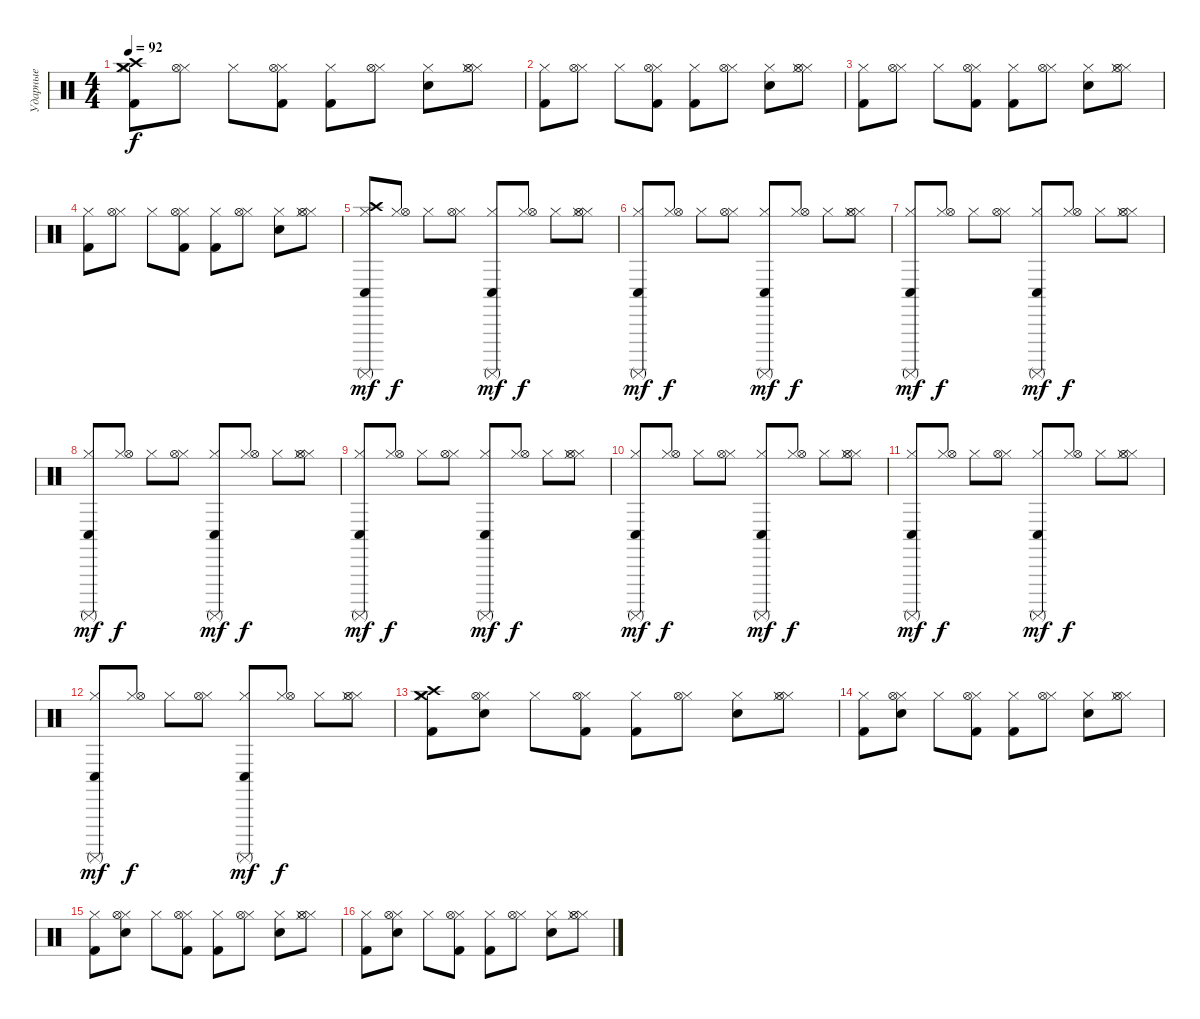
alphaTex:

\track ("Ударные" "Ударные") {instrument percussion}
\staff {score}
\articulation defaults
\ts (4 4)
\tempo 92
\clef neutral
\ks c
("Kick (hit) 2" "Hi-Hat (closed)" "Crash high (hit)" "Crash medium (hit)").8{dy f} ("Hi-Hat (closed)" "Hi-Hat (open)").8 "Hi-Hat (closed)".8 ("Kick (hit) 2" "Hi-Hat (closed)" "Hi-Hat (open)").8 ("Kick (hit) 2" "Hi-Hat (closed)").8 ("Hi-Hat (closed)" "Hi-Hat (open)").8 ("Snare (hit) 2" "Hi-Hat (closed)").8 ("Hi-Hat (closed)" "Hi-Hat (closed)" "Hi-Hat (open)").8 |
("Kick (hit) 2" "Hi-Hat (closed)").8 ("Hi-Hat (closed)" "Hi-Hat (open)").8 "Hi-Hat (closed)".8 ("Kick (hit) 2" "Hi-Hat (closed)" "Hi-Hat (open)").8 ("Kick (hit) 2" "Hi-Hat (closed)").8 ("Hi-Hat (closed)" "Hi-Hat (open)").8 ("Snare (hit) 2" "Hi-Hat (closed)").8 ("Hi-Hat (closed)" "Hi-Hat (closed)" "Hi-Hat (open)").8 |
("Kick (hit) 2" "Hi-Hat (closed)").8 ("Hi-Hat (closed)" "Hi-Hat (open)").8 "Hi-Hat (closed)".8 ("Kick (hit) 2" "Hi-Hat (closed)" "Hi-Hat (open)").8 ("Kick (hit) 2" "Hi-Hat (closed)").8 ("Hi-Hat (closed)" "Hi-Hat (open)").8 ("Snare (hit) 2" "Hi-Hat (closed)").8 ("Hi-Hat (closed)" "Hi-Hat (closed)" "Hi-Hat (open)").8 |
("Kick (hit) 2" "Hi-Hat (closed)").8 ("Hi-Hat (closed)" "Hi-Hat (open)").8 "Hi-Hat (closed)".8 ("Kick (hit) 2" "Hi-Hat (closed)" "Hi-Hat (open)").8 ("Kick (hit) 2" "Hi-Hat (closed)").8 ("Hi-Hat (closed)" "Hi-Hat (open)").8 ("Snare (hit) 2" "Hi-Hat (closed)").8 ("Hi-Hat (closed)" "Hi-Hat (closed)" "Hi-Hat (open)").8 |
("Hi-Hat (closed)" "Conga low (hit)" "Crash high (hit)" "Surdo (mute)").8{dy mf} ("Hi-Hat (closed)" "Hi-Hat (open)").8{dy f} "Hi-Hat (closed)".8 ("Hi-Hat (closed)" "Hi-Hat (open)").8 ("Hi-Hat (closed)" "Conga low (hit)" "Surdo (mute)").8{dy mf} ("Hi-Hat (closed)" "Hi-Hat (open)").8{dy f} "Hi-Hat (closed)".8 ("Hi-Hat (closed)" "Hi-Hat (closed)" "Hi-Hat (open)").8 |
("Hi-Hat (closed)" "Conga low (hit)" "Surdo (mute)").8{dy mf} ("Hi-Hat (closed)" "Hi-Hat (open)").8{dy f} "Hi-Hat (closed)".8 ("Hi-Hat (closed)" "Hi-Hat (open)").8 ("Hi-Hat (closed)" "Conga low (hit)" "Surdo (mute)").8{dy mf} ("Hi-Hat (closed)" "Hi-Hat (open)").8{dy f} "Hi-Hat (closed)".8 ("Hi-Hat (closed)" "Hi-Hat (closed)" "Hi-Hat (open)").8 |
("Hi-Hat (closed)" "Conga low (hit)" "Surdo (mute)").8{dy mf} ("Hi-Hat (closed)" "Hi-Hat (open)").8{dy f} "Hi-Hat (closed)".8 ("Hi-Hat (closed)" "Hi-Hat (open)").8 ("Hi-Hat (closed)" "Conga low (hit)" "Surdo (mute)").8{dy mf} ("Hi-Hat (closed)" "Hi-Hat (open)").8{dy f} "Hi-Hat (closed)".8 ("Hi-Hat (closed)" "Hi-Hat (closed)" "Hi-Hat (open)").8 |
("Hi-Hat (closed)" "Conga low (hit)" "Surdo (mute)").8{dy mf} ("Hi-Hat (closed)" "Hi-Hat (open)").8{dy f} "Hi-Hat (closed)".8 ("Hi-Hat (closed)" "Hi-Hat (open)").8 ("Hi-Hat (closed)" "Conga low (hit)" "Surdo (mute)").8{dy mf} ("Hi-Hat (closed)" "Hi-Hat (open)").8{dy f} "Hi-Hat (closed)".8 ("Hi-Hat (closed)" "Hi-Hat (closed)" "Hi-Hat (open)").8 |
("Hi-Hat (closed)" "Conga low (hit)" "Surdo (mute)").8{dy mf} ("Hi-Hat (closed)" "Hi-Hat (open)").8{dy f} "Hi-Hat (closed)".8 ("Hi-Hat (closed)" "Hi-Hat (open)").8 ("Hi-Hat (closed)" "Conga low (hit)" "Surdo (mute)").8{dy mf} ("Hi-Hat (closed)" "Hi-Hat (open)").8{dy f} "Hi-Hat (closed)".8 ("Hi-Hat (closed)" "Hi-Hat (closed)" "Hi-Hat (open)").8 |
("Hi-Hat (closed)" "Conga low (hit)" "Surdo (mute)").8{dy mf} ("Hi-Hat (closed)" "Hi-Hat (open)").8{dy f} "Hi-Hat (closed)".8 ("Hi-Hat (closed)" "Hi-Hat (open)").8 ("Hi-Hat (closed)" "Conga low (hit)" "Surdo (mute)").8{dy mf} ("Hi-Hat (closed)" "Hi-Hat (open)").8{dy f} "Hi-Hat (closed)".8 ("Hi-Hat (closed)" "Hi-Hat (closed)" "Hi-Hat (open)").8 |
("Hi-Hat (closed)" "Conga low (hit)" "Surdo (mute)").8{dy mf} ("Hi-Hat (closed)" "Hi-Hat (open)").8{dy f} "Hi-Hat (closed)".8 ("Hi-Hat (closed)" "Hi-Hat (open)").8 ("Hi-Hat (closed)" "Conga low (hit)" "Surdo (mute)").8{dy mf} ("Hi-Hat (closed)" "Hi-Hat (open)").8{dy f} "Hi-Hat (closed)".8 ("Hi-Hat (closed)" "Hi-Hat (closed)" "Hi-Hat (open)").8 |
("Hi-Hat (closed)" "Conga low (hit)" "Surdo (mute)").8{dy mf} ("Hi-Hat (closed)" "Hi-Hat (open)").8{dy f} "Hi-Hat (closed)".8 ("Hi-Hat (closed)" "Hi-Hat (open)").8 ("Hi-Hat (closed)" "Conga low (hit)" "Surdo (mute)").8{dy mf} ("Hi-Hat (closed)" "Hi-Hat (open)").8{dy f} "Hi-Hat (closed)".8 ("Hi-Hat (closed)" "Hi-Hat (closed)" "Hi-Hat (open)").8 |
("Kick (hit) 2" "Hi-Hat (closed)" "Crash high (hit)" "Crash medium (hit)").8 ("Hi-Hat (closed)" "Hi-Hat (open)" "Snare (hit) 2").8 "Hi-Hat (closed)".8 ("Kick (hit) 2" "Hi-Hat (closed)" "Hi-Hat (open)").8 ("Kick (hit) 2" "Hi-Hat (closed)").8 ("Hi-Hat (closed)" "Hi-Hat (open)").8 ("Snare (hit) 2" "Hi-Hat (closed)").8 ("Hi-Hat (closed)" "Hi-Hat (closed)" "Hi-Hat (open)").8 |
("Kick (hit) 2" "Hi-Hat (closed)").8 ("Hi-Hat (closed)" "Hi-Hat (open)" "Snare (hit) 2").8 "Hi-Hat (closed)".8 ("Kick (hit) 2" "Hi-Hat (closed)" "Hi-Hat (open)").8 ("Kick (hit) 2" "Hi-Hat (closed)").8 ("Hi-Hat (closed)" "Hi-Hat (open)").8 ("Snare (hit) 2" "Hi-Hat (closed)").8 ("Hi-Hat (closed)" "Hi-Hat (closed)" "Hi-Hat (open)").8 |
("Kick (hit) 2" "Hi-Hat (closed)").8 ("Hi-Hat (closed)" "Hi-Hat (open)" "Snare (hit) 2").8 "Hi-Hat (closed)".8 ("Kick (hit) 2" "Hi-Hat (closed)" "Hi-Hat (open)").8 ("Kick (hit) 2" "Hi-Hat (closed)").8 ("Hi-Hat (closed)" "Hi-Hat (open)").8 ("Snare (hit) 2" "Hi-Hat (closed)").8 ("Hi-Hat (closed)" "Hi-Hat (closed)" "Hi-Hat (open)").8 |
("Kick (hit) 2" "Hi-Hat (closed)").8 ("Hi-Hat (closed)" "Hi-Hat (open)" "Snare (hit) 2").8 "Hi-Hat (closed)".8 ("Kick (hit) 2" "Hi-Hat (closed)" "Hi-Hat (open)").8 ("Kick (hit) 2" "Hi-Hat (closed)").8 ("Hi-Hat (closed)" "Hi-Hat (open)").8 ("Snare (hit) 2" "Hi-Hat (closed)").8 ("Hi-Hat (closed)" "Hi-Hat (closed)" "Hi-Hat (open)").8
